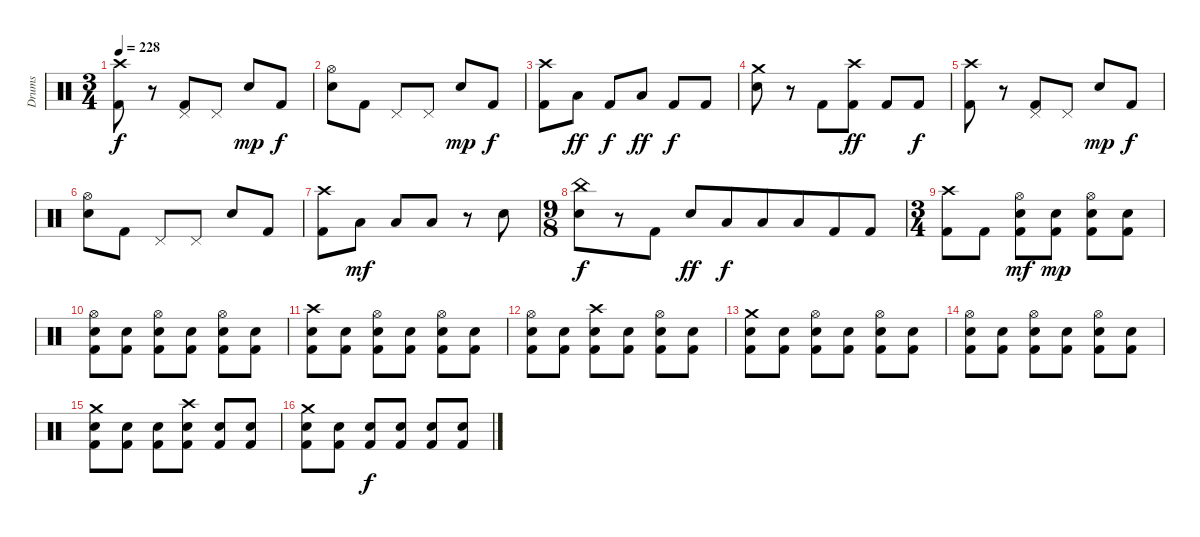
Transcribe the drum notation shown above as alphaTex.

\track ("Drums" "Drums") {instrument percussion}
\staff {score}
\articulation defaults
\ts (3 4)
\tempo 228
\clef neutral
\ks c
("Crash high (hit)" "Kick (hit) 2").8{dy f} r.8 ("Pedal Hi-Hat (hit)" "Kick (hit) 2").8 "Pedal Hi-Hat (hit)".8 "Electric Snare (hit)".8{dy mp} "Kick (hit) 2".8{dy f} |
("Hi-Hat (open)" "Electric Snare (hit)").8 "Kick (hit) 2".8 "Pedal Hi-Hat (hit)".8 "Pedal Hi-Hat (hit)".8 "Electric Snare (hit)".8{dy mp beam merge} "Kick (hit) 2".8{dy f} |
("Crash high (hit)" "Kick (hit) 2").8 "Low Tom (hit)".8{dy ff} "Kick (hit) 2".8{dy f} "Low Floor Tom (hit)".8{dy ff} "Kick (hit) 2".8{dy f} "Kick (hit) 2".8 |
("Crash medium (hit)" "Electric Snare (hit)").8 r.8 "Kick (hit) 2".8 ("Crash high (hit)" "Kick (hit) 2").8{dy ff} "Kick (hit) 2".8 "Kick (hit) 2".8{dy f} |
("Crash high (hit)" "Kick (hit) 2").8 r.8 ("Pedal Hi-Hat (hit)" "Kick (hit) 2").8 "Pedal Hi-Hat (hit)".8 "Electric Snare (hit)".8{dy mp} "Kick (hit) 2".8{dy f} |
("Hi-Hat (open)" "Electric Snare (hit)").8 "Kick (hit) 2".8 "Pedal Hi-Hat (hit)".8 "Pedal Hi-Hat (hit)".8 "Electric Snare (hit)".8{beam merge} "Kick (hit) 2".8 |
("Crash high (hit)" "Kick (hit) 2").8 "Low Tom (hit)".8{dy mf} "Low Tom (hit)".8 "Low Floor Tom (hit)".8 r.8 "Electric Snare (hit)".8 |
\ts (9 8)
("China (hit)" "Electric Snare (hit)").8{dy f} r.8 "Kick (hit) 2".8 "Electric Snare (hit)".8{dy ff} "Low Tom (hit)".8{dy f} "Low Floor Tom (hit)".8{beam merge} "Low Floor Tom (hit)".8{beam merge} "Kick (hit) 2".8{beam merge} "Kick (hit) 2".8 |
\ts (3 4)
("Crash high (hit)" "Kick (hit) 2").8 "Kick (hit) 2".8 ("Hi-Hat (open)" "Electric Snare (hit)" "Kick (hit) 2").8{dy mf} ("Electric Snare (hit)" "Kick (hit) 2").8{dy mp} ("Hi-Hat (open)" "Electric Snare (hit)" "Kick (hit) 2").8 ("Electric Snare (hit)" "Kick (hit) 2").8 |
("Hi-Hat (open)" "Electric Snare (hit)" "Kick (hit) 2").8 ("Electric Snare (hit)" "Kick (hit) 2").8 ("Hi-Hat (open)" "Electric Snare (hit)" "Kick (hit) 2").8 ("Electric Snare (hit)" "Kick (hit) 2").8 ("Hi-Hat (open)" "Electric Snare (hit)" "Kick (hit) 2").8 ("Electric Snare (hit)" "Kick (hit) 2").8 |
("Crash high (hit)" "Electric Snare (hit)" "Kick (hit) 2").8 ("Electric Snare (hit)" "Kick (hit) 2").8 ("Hi-Hat (open)" "Electric Snare (hit)" "Kick (hit) 2").8 ("Electric Snare (hit)" "Kick (hit) 2").8 ("Hi-Hat (open)" "Electric Snare (hit)" "Kick (hit) 2").8 ("Electric Snare (hit)" "Kick (hit) 2").8 |
("Hi-Hat (open)" "Electric Snare (hit)" "Kick (hit) 2").8 ("Electric Snare (hit)" "Kick (hit) 2").8 ("Crash high (hit)" "Electric Snare (hit)" "Kick (hit) 2").8 ("Electric Snare (hit)" "Kick (hit) 2").8 ("Hi-Hat (open)" "Electric Snare (hit)" "Kick (hit) 2").8 ("Electric Snare (hit)" "Kick (hit) 2").8 |
("Crash medium (hit)" "Electric Snare (hit)" "Kick (hit) 2").8 ("Electric Snare (hit)" "Kick (hit) 2").8 ("Hi-Hat (open)" "Electric Snare (hit)" "Kick (hit) 2").8 ("Electric Snare (hit)" "Kick (hit) 2").8 ("Hi-Hat (open)" "Electric Snare (hit)" "Kick (hit) 2").8 ("Electric Snare (hit)" "Kick (hit) 2").8 |
("Hi-Hat (open)" "Electric Snare (hit)" "Kick (hit) 2").8 ("Electric Snare (hit)" "Kick (hit) 2").8 ("Hi-Hat (open)" "Electric Snare (hit)" "Kick (hit) 2").8 ("Electric Snare (hit)" "Kick (hit) 2").8 ("Hi-Hat (open)" "Electric Snare (hit)" "Kick (hit) 2").8 ("Electric Snare (hit)" "Kick (hit) 2").8 |
("Crash medium (hit)" "Electric Snare (hit)" "Kick (hit) 2").8 ("Electric Snare (hit)" "Kick (hit) 2").8 ("Electric Snare (hit)" "Kick (hit) 2").8 ("Crash high (hit)" "Electric Snare (hit)" "Kick (hit) 2").8 ("Electric Snare (hit)" "Kick (hit) 2").8 ("Electric Snare (hit)" "Kick (hit) 2").8 |
("Crash medium (hit)" "Electric Snare (hit)" "Kick (hit) 2").8 ("Electric Snare (hit)" "Kick (hit) 2").8 ("Electric Snare (hit)" "Kick (hit) 2").8{dy f} ("Electric Snare (hit)" "Kick (hit) 2").8 ("Electric Snare (hit)" "Kick (hit) 2").8 ("Electric Snare (hit)" "Kick (hit) 2").8
